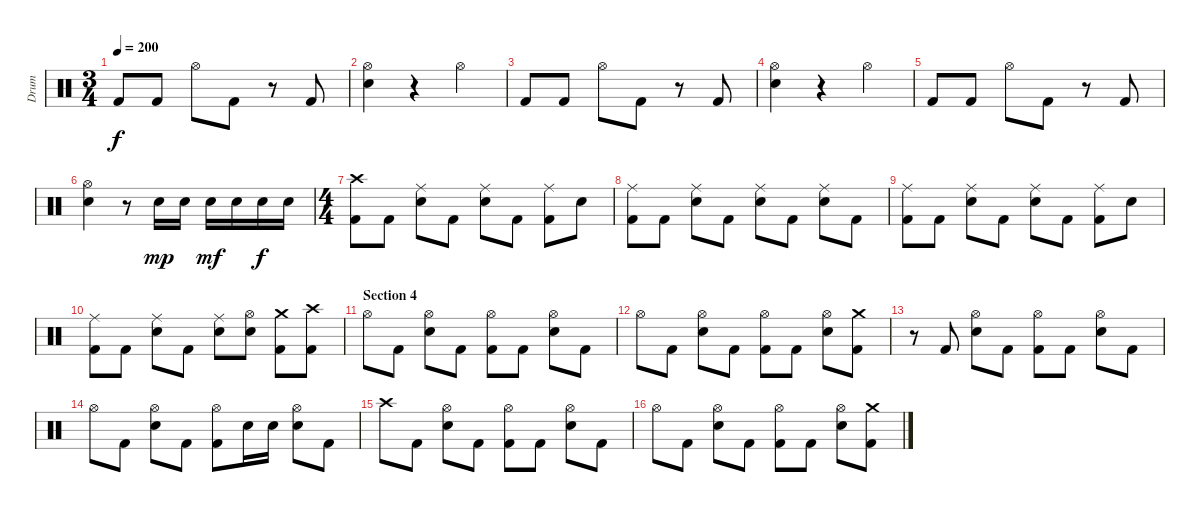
\track ("Drum" "Drum") {instrument percussion}
\staff {score}
\articulation defaults
\ts (3 4)
\tempo 200
\clef neutral
\ks c "Kick (hit) 2".8{dy f} "Kick (hit) 2".8 "Hi-Hat (open)".8 "Kick (hit) 2".8
r.8 "Kick (hit) 2".8 |
("Hi-Hat (open)" "Electric Snare (hit)").4 r.4 "Hi-Hat (open)".4 |
"Kick (hit) 2".8 "Kick (hit) 2".8 "Hi-Hat (open)".8 "Kick (hit) 2".8 r.8 "Kick (hit) 2".8 |
("Hi-Hat (open)" "Electric Snare (hit)").4 r.4 "Hi-Hat (open)".4 |
"Kick (hit) 2".8 "Kick (hit) 2".8 "Hi-Hat (open)".8 "Kick (hit) 2".8 r.8 "Kick (hit) 2".8 |
("Hi-Hat (open)" "Electric Snare (hit)").4 r.8 "Electric Snare (hit)".16{dy mp} "Electric Snare (hit)".16 "Electric Snare (hit)".16{dy mf} "Electric Snare (hit)".16 "Electric Snare (hit)".16{dy f} "Electric Snare (hit)".16 |
\ts (4 4)
("Crash high (hit)" "Kick (hit) 2").8 "Kick (hit) 2".8 ("Ride (middle)" "Electric Snare (hit)").8 "Kick (hit) 2".8 ("Ride (middle)" "Electric Snare (hit)").8 "Kick (hit) 2".8 ("Ride (middle)" "Kick (hit) 2").8 "Electric Snare (hit)".8 |
("Ride (middle)" "Kick (hit) 2").8 "Kick (hit) 2".8 ("Ride (middle)" "Electric Snare (hit)").8 "Kick (hit) 2".8 ("Ride (middle)" "Electric Snare (hit)").8 "Kick (hit) 2".8 ("Ride (middle)" "Electric Snare (hit)").8 "Kick (hit) 2".8 |
("Ride (middle)" "Kick (hit) 2").8 "Kick (hit) 2".8 ("Ride (middle)" "Electric Snare (hit)").8 "Kick (hit) 2".8 ("Ride (middle)" "Electric Snare (hit)").8 "Kick (hit) 2".8 ("Ride (middle)" "Kick (hit) 2").8 "Electric Snare (hit)".8 |
("Ride (middle)" "Kick (hit) 2").8 "Kick (hit) 2".8 ("Ride (middle)" "Electric Snare (hit)").8 "Kick (hit) 2".8 ("Ride (middle)" "Electric Snare (hit)").8 ("Hi-Hat (open)" "Electric Snare (hit)").8 ("Crash medium (hit)" "Kick (hit) 2").8 ("Crash high (hit)" "Kick (hit) 2").8 |
\section ("" "Section 4")
"Hi-Hat (open)".8 "Kick (hit) 2".8 ("Hi-Hat (open)" "Electric Snare (hit)").8 "Kick (hit) 2".8 ("Hi-Hat (open)" "Kick (hit) 2").8 "Kick (hit) 2".8 ("Hi-Hat (open)" "Electric Snare (hit)").8 "Kick (hit) 2".8 |
"Hi-Hat (open)".8 "Kick (hit) 2".8 ("Hi-Hat (open)" "Electric Snare (hit)").8 "Kick (hit) 2".8 ("Hi-Hat (open)" "Kick (hit) 2").8 "Kick (hit) 2".8 ("Hi-Hat (open)" "Electric Snare (hit)").8 ("Crash medium (hit)" "Kick (hit) 2").8 |
r.8 "Kick (hit) 2".8 ("Hi-Hat (open)" "Electric Snare (hit)").8 "Kick (hit) 2".8 ("Hi-Hat (open)" "Kick (hit) 2").8 "Kick (hit) 2".8 ("Hi-Hat (open)" "Electric Snare (hit)").8 "Kick (hit) 2".8 |
"Hi-Hat (open)".8 "Kick (hit) 2".8 ("Hi-Hat (open)" "Electric Snare (hit)").8 "Kick (hit) 2".8 ("Hi-Hat (open)" "Kick (hit) 2").8 "Electric Snare (hit)".16 "Electric Snare (hit)".16 ("Hi-Hat (open)" "Electric Snare (hit)").8 "Kick (hit) 2".8 |
"Crash high (hit)".8 "Kick (hit) 2".8 ("Hi-Hat (open)" "Electric Snare (hit)").8 "Kick (hit) 2".8 ("Hi-Hat (open)" "Kick (hit) 2").8 "Kick (hit) 2".8 ("Hi-Hat (open)" "Electric Snare (hit)").8 "Kick (hit) 2".8 |
"Hi-Hat (open)".8 "Kick (hit) 2".8 ("Hi-Hat (open)" "Electric Snare (hit)").8 "Kick (hit) 2".8 ("Hi-Hat (open)" "Kick (hit) 2").8 "Kick (hit) 2".8 ("Hi-Hat (open)" "Electric Snare (hit)").8 ("Crash medium (hit)" "Kick (hit) 2").8
